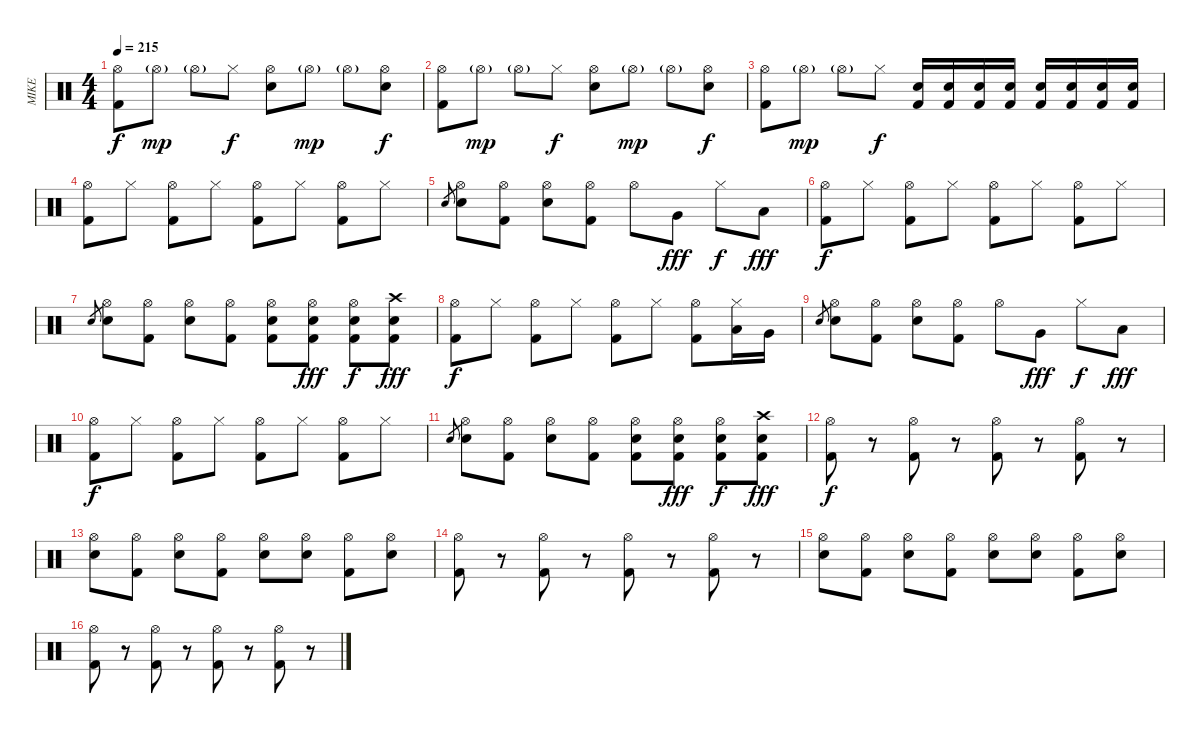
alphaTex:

\track ("MIKE" "MIKE") {instrument percussion}
\staff {score}
\articulation defaults
\ts (4 4)
\tempo 215
\clef neutral
\ks c
("Hi-Hat (open)" "Kick (hit) 2").8{dy f} "Hi-Hat (open)"{g}.8{dy mp} "Hi-Hat (open)"{g}.8 "Hi-Hat (closed)".8{dy f} ("Hi-Hat (open)" "Snare (hit) 2").8 "Hi-Hat (open)"{g}.8{dy mp} "Hi-Hat (open)"{g}.8 ("Hi-Hat (open)" "Snare (hit) 2").8{dy f} |
("Hi-Hat (open)" "Kick (hit) 2").8 "Hi-Hat (open)"{g}.8{dy mp} "Hi-Hat (open)"{g}.8 "Hi-Hat (closed)".8{dy f} ("Hi-Hat (open)" "Snare (hit) 2").8 "Hi-Hat (open)"{g}.8{dy mp} "Hi-Hat (open)"{g}.8 ("Hi-Hat (open)" "Snare (hit) 2").8{dy f} |
("Hi-Hat (open)" "Kick (hit) 2").8 "Hi-Hat (open)"{g}.8{dy mp} "Hi-Hat (open)"{g}.8 "Hi-Hat (closed)".8{dy f} ("Kick (hit) 2" "Electric Snare (hit)").16 ("Kick (hit) 2" "Electric Snare (hit)").16 ("Kick (hit) 2" "Electric Snare (hit)").16 ("Kick (hit) 2" "Electric Snare (hit)").16 ("Kick (hit) 2" "Electric Snare (hit)").16 ("Kick (hit) 2" "Electric Snare (hit)").16 ("Kick (hit) 2" "Electric Snare (hit)").16 ("Kick (hit) 2" "Electric Snare (hit)").16 |
("Kick (hit) 2" "Hi-Hat (open)").8 "Hi-Hat (closed)".8 ("Kick (hit) 2" "Hi-Hat (open)").8 "Hi-Hat (closed)".8 ("Kick (hit) 2" "Hi-Hat (open)").8 "Hi-Hat (closed)".8 ("Kick (hit) 2" "Hi-Hat (open)").8 "Hi-Hat (closed)".8 |
"Electric Snare (hit)".8{gr} ("Electric Snare (hit)" "Hi-Hat (open)").8 ("Kick (hit) 2" "Hi-Hat (open)").8 ("Electric Snare (hit)" "Hi-Hat (open)").8 ("Kick (hit) 2" "Hi-Hat (open)").8 "Hi-Hat (open)".8 "Very Low Tom (hit)".8{dy fff} "Hi-Hat (closed)".8{dy f} "Low Tom (hit)".8{dy fff} |
("Kick (hit) 2" "Hi-Hat (open)").8{dy f} "Hi-Hat (closed)".8 ("Kick (hit) 2" "Hi-Hat (open)").8 "Hi-Hat (closed)".8 ("Kick (hit) 2" "Hi-Hat (open)").8 "Hi-Hat (closed)".8 ("Kick (hit) 2" "Hi-Hat (open)").8 "Hi-Hat (closed)".8 |
"Electric Snare (hit)".8{gr} ("Electric Snare (hit)" "Hi-Hat (open)").8 ("Kick (hit) 2" "Hi-Hat (open)").8 ("Electric Snare (hit)" "Hi-Hat (open)").8 ("Kick (hit) 2" "Hi-Hat (open)").8 ("Electric Snare (hit)" "Kick (hit) 2" "Hi-Hat (open)").8 ("Electric Snare (hit)" "Kick (hit) 2" "Hi-Hat (open)").8{dy fff} ("Electric Snare (hit)" "Kick (hit) 2" "Hi-Hat (open)").8{dy f} ("Electric Snare (hit)" "Kick (hit) 2" "Crash high (hit)").8{dy fff} |
("Kick (hit) 2" "Hi-Hat (open)").8{dy f} "Hi-Hat (closed)".8 ("Kick (hit) 2" "Hi-Hat (open)").8 "Hi-Hat (closed)".8 ("Kick (hit) 2" "Hi-Hat (open)").8 "Hi-Hat (closed)".8 ("Kick (hit) 2" "Hi-Hat (open)").8 ("Hi-Hat (closed)" "Low Tom (hit)").16 "Very Low Tom (hit)".16 |
"Electric Snare (hit)".8{gr} ("Electric Snare (hit)" "Hi-Hat (open)").8 ("Kick (hit) 2" "Hi-Hat (open)").8 ("Electric Snare (hit)" "Hi-Hat (open)").8 ("Kick (hit) 2" "Hi-Hat (open)").8 "Hi-Hat (open)".8 "Very Low Tom (hit)".8{dy fff} "Hi-Hat (closed)".8{dy f} "Low Tom (hit)".8{dy fff} |
("Kick (hit) 2" "Hi-Hat (open)").8{dy f} "Hi-Hat (closed)".8 ("Kick (hit) 2" "Hi-Hat (open)").8 "Hi-Hat (closed)".8 ("Kick (hit) 2" "Hi-Hat (open)").8 "Hi-Hat (closed)".8 ("Kick (hit) 2" "Hi-Hat (open)").8 "Hi-Hat (closed)".8 |
"Electric Snare (hit)".8{gr} ("Electric Snare (hit)" "Hi-Hat (open)").8 ("Kick (hit) 2" "Hi-Hat (open)").8 ("Electric Snare (hit)" "Hi-Hat (open)").8 ("Kick (hit) 2" "Hi-Hat (open)").8 ("Electric Snare (hit)" "Kick (hit) 2" "Hi-Hat (open)").8 ("Electric Snare (hit)" "Kick (hit) 2" "Hi-Hat (open)").8{dy fff} ("Electric Snare (hit)" "Kick (hit) 2" "Hi-Hat (open)").8{dy f} ("Electric Snare (hit)" "Kick (hit) 2" "Crash high (hit)").8{dy fff} |
("Kick (hit) 2" "Hi-Hat (open)").8{dy f} r.8 ("Kick (hit) 2" "Hi-Hat (open)").8 r.8 ("Kick (hit) 2" "Hi-Hat (open)").8 r.8 ("Kick (hit) 2" "Hi-Hat (open)").8 r.8 |
("Snare (hit) 2" "Hi-Hat (open)").8 ("Kick (hit) 2" "Hi-Hat (open)").8 ("Snare (hit) 2" "Hi-Hat (open)").8 ("Kick (hit) 2" "Hi-Hat (open)").8 ("Snare (hit) 2" "Hi-Hat (open)").8 ("Snare (hit) 2" "Hi-Hat (open)").8 ("Kick (hit) 2" "Hi-Hat (open)").8 ("Snare (hit) 2" "Hi-Hat (open)").8 |
("Kick (hit) 2" "Hi-Hat (open)").8 r.8 ("Kick (hit) 2" "Hi-Hat (open)").8 r.8 ("Kick (hit) 2" "Hi-Hat (open)").8 r.8 ("Kick (hit) 2" "Hi-Hat (open)").8 r.8 |
("Snare (hit) 2" "Hi-Hat (open)").8 ("Kick (hit) 2" "Hi-Hat (open)").8 ("Snare (hit) 2" "Hi-Hat (open)").8 ("Kick (hit) 2" "Hi-Hat (open)").8 ("Snare (hit) 2" "Hi-Hat (open)").8 ("Snare (hit) 2" "Hi-Hat (open)").8 ("Kick (hit) 2" "Hi-Hat (open)").8 ("Snare (hit) 2" "Hi-Hat (open)").8 |
("Kick (hit) 2" "Hi-Hat (open)").8 r.8 ("Kick (hit) 2" "Hi-Hat (open)").8 r.8 ("Kick (hit) 2" "Hi-Hat (open)").8 r.8 ("Kick (hit) 2" "Hi-Hat (open)").8 r.8
